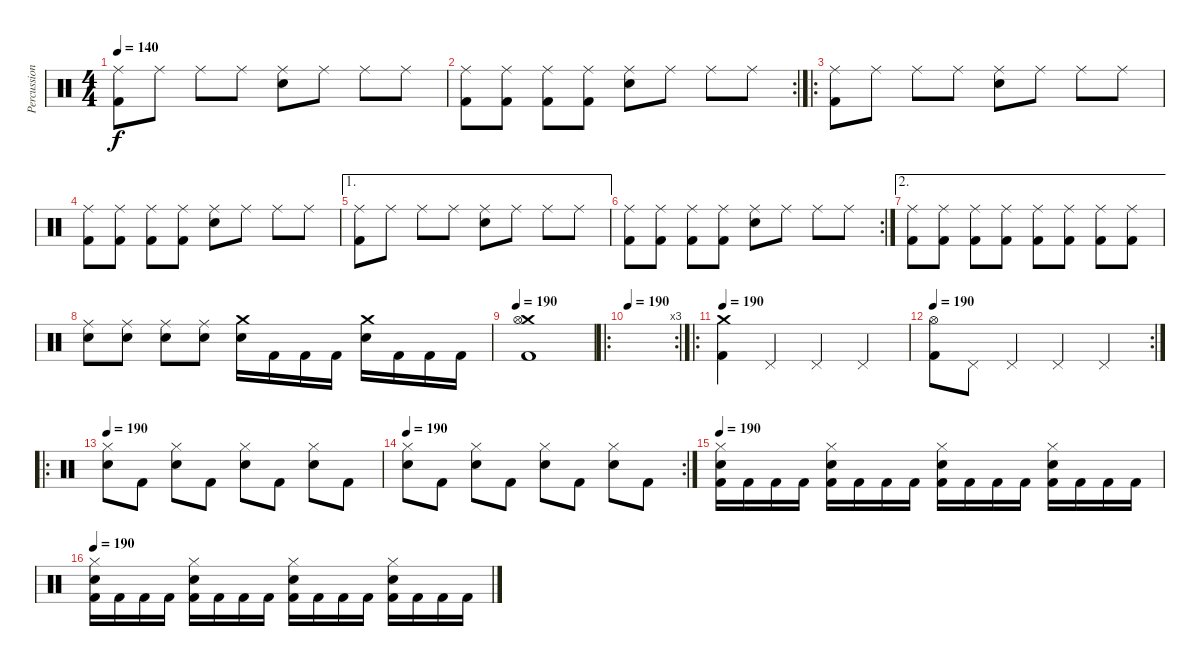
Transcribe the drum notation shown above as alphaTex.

\track ("Percussion" "Percussion") {instrument percussion}
\staff {score}
\articulation defaults
\ts (4 4)
\tempo 140
\clef neutral
\ks c
("Ride (middle)" "Kick (hit) 2").8{dy f} "Ride (middle)".8 "Ride (middle)".8 "Ride (middle)".8 ("Ride (middle)" "Electric Snare (hit)").8 "Ride (middle)".8 "Ride (middle)".8 "Ride (middle)".8 |
\rc 2
("Ride (middle)" "Kick (hit) 2").8 ("Ride (middle)" "Kick (hit) 2").8 ("Ride (middle)" "Kick (hit) 2").8 ("Ride (middle)" "Kick (hit) 2").8 ("Ride (middle)" "Electric Snare (hit)").8 "Ride (middle)".8 "Ride (middle)".8 "Ride (middle)".8 |
\ro
("Ride (middle)" "Kick (hit) 2").8 "Ride (middle)".8 "Ride (middle)".8 "Ride (middle)".8 ("Ride (middle)" "Electric Snare (hit)").8 "Ride (middle)".8 "Ride (middle)".8 "Ride (middle)".8 |
("Ride (middle)" "Kick (hit) 2").8 ("Ride (middle)" "Kick (hit) 2").8 ("Ride (middle)" "Kick (hit) 2").8 ("Ride (middle)" "Kick (hit) 2").8 ("Ride (middle)" "Electric Snare (hit)").8 "Ride (middle)".8 "Ride (middle)".8 "Ride (middle)".8 |
\ae 1
("Ride (middle)" "Kick (hit) 2").8 "Ride (middle)".8 "Ride (middle)".8 "Ride (middle)".8 ("Ride (middle)" "Electric Snare (hit)").8 "Ride (middle)".8 "Ride (middle)".8 "Ride (middle)".8 |
\rc 2
("Ride (middle)" "Kick (hit) 2").8 ("Ride (middle)" "Kick (hit) 2").8 ("Ride (middle)" "Kick (hit) 2").8 ("Ride (middle)" "Kick (hit) 2").8 ("Ride (middle)" "Electric Snare (hit)").8 "Ride (middle)".8 "Ride (middle)".8 "Ride (middle)".8 |
\ae 2
("Ride (middle)" "Kick (hit) 2").8 ("Ride (middle)" "Kick (hit) 2").8 ("Ride (middle)" "Kick (hit) 2").8 ("Ride (middle)" "Kick (hit) 2").8 ("Ride (middle)" "Kick (hit) 2").8 ("Ride (middle)" "Kick (hit) 2").8 ("Ride (middle)" "Kick (hit) 2").8 ("Ride (middle)" "Kick (hit) 2").8 |
("Ride (middle)" "Electric Snare (hit)").8 ("Ride (middle)" "Electric Snare (hit)").8 ("Ride (middle)" "Electric Snare (hit)").8 ("Ride (middle)" "Electric Snare (hit)").8 ("Crash medium (hit)" "Electric Snare (hit)").16 "Kick (hit) 2".16 "Kick (hit) 2".16 "Kick (hit) 2".16 ("Crash medium (hit)" "Electric Snare (hit)").16 "Kick (hit) 2".16 "Kick (hit) 2".16 "Kick (hit) 2".16 |
\tempo 190
("Crash medium (hit)" "Hi-Hat (open)" "Kick (hit) 2").1 |
\ro
\rc 3
\tempo 190
|
\ro
\tempo 190
("Crash medium (hit)" "Kick (hit) 2").4 "Pedal Hi-Hat (hit)".4 "Pedal Hi-Hat (hit)".4 "Pedal Hi-Hat (hit)".4 |
\rc 2
\tempo 190
("Hi-Hat (open)" "Kick (hit) 2").8 "Pedal Hi-Hat (hit)".8 "Pedal Hi-Hat (hit)".4 "Pedal Hi-Hat (hit)".4 "Pedal Hi-Hat (hit)".4 |
\ro
\tempo 190
("Hi-Hat (closed)" "Electric Snare (hit)").8 "Kick (hit) 2".8 ("Hi-Hat (closed)" "Electric Snare (hit)").8 "Kick (hit) 2".8 ("Hi-Hat (closed)" "Electric Snare (hit)").8 "Kick (hit) 2".8 ("Hi-Hat (closed)" "Electric Snare (hit)").8 "Kick (hit) 2".8 |
\rc 2
\tempo 190
("Hi-Hat (closed)" "Electric Snare (hit)").8 "Kick (hit) 2".8 ("Hi-Hat (closed)" "Electric Snare (hit)").8 "Kick (hit) 2".8 ("Hi-Hat (closed)" "Electric Snare (hit)").8 "Kick (hit) 2".8 ("Hi-Hat (closed)" "Electric Snare (hit)").8 "Kick (hit) 2".8 |
\tempo 190
("Hi-Hat (closed)" "Electric Snare (hit)" "Kick (hit) 2").16 "Kick (hit) 2".16 "Kick (hit) 2".16 "Kick (hit) 2".16 ("Hi-Hat (closed)" "Electric Snare (hit)" "Kick (hit) 2").16 "Kick (hit) 2".16 "Kick (hit) 2".16 "Kick (hit) 2".16 ("Hi-Hat (closed)" "Electric Snare (hit)" "Kick (hit) 2").16 "Kick (hit) 2".16 "Kick (hit) 2".16 "Kick (hit) 2".16 ("Hi-Hat (closed)" "Electric Snare (hit)" "Kick (hit) 2").16 "Kick (hit) 2".16 "Kick (hit) 2".16 "Kick (hit) 2".16 |
\tempo 190
("Hi-Hat (closed)" "Electric Snare (hit)" "Kick (hit) 2").16 "Kick (hit) 2".16 "Kick (hit) 2".16 "Kick (hit) 2".16 ("Hi-Hat (closed)" "Electric Snare (hit)" "Kick (hit) 2").16 "Kick (hit) 2".16 "Kick (hit) 2".16 "Kick (hit) 2".16 ("Hi-Hat (closed)" "Electric Snare (hit)" "Kick (hit) 2").16 "Kick (hit) 2".16 "Kick (hit) 2".16 "Kick (hit) 2".16 ("Hi-Hat (closed)" "Electric Snare (hit)" "Kick (hit) 2").16 "Kick (hit) 2".16 "Kick (hit) 2".16 "Kick (hit) 2".16
